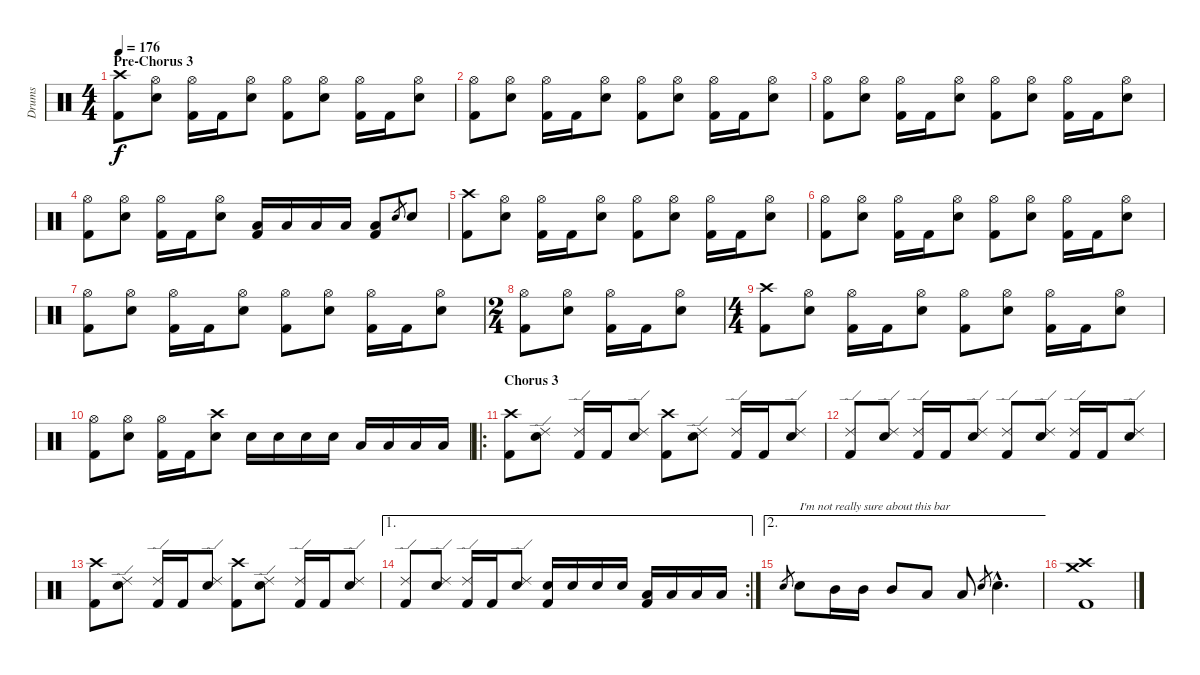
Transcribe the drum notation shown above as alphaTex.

\track ("Drums" "Drums") {instrument percussion}
\staff {score}
\articulation defaults
\ts (4 4)
\section ("" "Pre-Chorus 3")
\tempo 176
\clef neutral
\ks c
("Crash high (hit)" "Kick (hit) 2").8{dy f} ("Hi-Hat (open)" "Electric Snare (hit)").8 ("Hi-Hat (open)" "Kick (hit) 2").16 "Kick (hit) 2".16 ("Hi-Hat (open)" "Electric Snare (hit)").8 ("Hi-Hat (open)" "Kick (hit) 2").8 ("Hi-Hat (open)" "Electric Snare (hit)").8 ("Hi-Hat (open)" "Kick (hit) 2").16 "Kick (hit) 2".16 ("Hi-Hat (open)" "Electric Snare (hit)").8 |
("Hi-Hat (open)" "Kick (hit) 2").8 ("Hi-Hat (open)" "Electric Snare (hit)").8 ("Hi-Hat (open)" "Kick (hit) 2").16 "Kick (hit) 2".16 ("Hi-Hat (open)" "Electric Snare (hit)").8 ("Hi-Hat (open)" "Kick (hit) 2").8 ("Hi-Hat (open)" "Electric Snare (hit)").8 ("Hi-Hat (open)" "Kick (hit) 2").16 "Kick (hit) 2".16 ("Hi-Hat (open)" "Electric Snare (hit)").8 |
("Hi-Hat (open)" "Kick (hit) 2").8 ("Hi-Hat (open)" "Electric Snare (hit)").8 ("Hi-Hat (open)" "Kick (hit) 2").16 "Kick (hit) 2".16 ("Hi-Hat (open)" "Electric Snare (hit)").8 ("Hi-Hat (open)" "Kick (hit) 2").8 ("Hi-Hat (open)" "Electric Snare (hit)").8 ("Hi-Hat (open)" "Kick (hit) 2").16 "Kick (hit) 2".16 ("Hi-Hat (open)" "Electric Snare (hit)").8 |
("Hi-Hat (open)" "Kick (hit) 2").8 ("Hi-Hat (open)" "Electric Snare (hit)").8 ("Hi-Hat (open)" "Kick (hit) 2").16 "Kick (hit) 2".16 ("Hi-Hat (open)" "Electric Snare (hit)").8 ("Low Tom (hit)" "Kick (hit) 2").16 "Low Tom (hit)".16 "Low Tom (hit)".16 "Low Tom (hit)".16 ("Low Tom (hit)" "Kick (hit) 2").8 "Electric Snare (hit)".8{gr} "Electric Snare (hit)".8 |
("Crash high (hit)" "Kick (hit) 2").8 ("Hi-Hat (open)" "Electric Snare (hit)").8 ("Hi-Hat (open)" "Kick (hit) 2").16 "Kick (hit) 2".16 ("Hi-Hat (open)" "Electric Snare (hit)").8 ("Hi-Hat (open)" "Kick (hit) 2").8 ("Hi-Hat (open)" "Electric Snare (hit)").8 ("Hi-Hat (open)" "Kick (hit) 2").16 "Kick (hit) 2".16 ("Hi-Hat (open)" "Electric Snare (hit)").8 |
("Hi-Hat (open)" "Kick (hit) 2").8 ("Hi-Hat (open)" "Electric Snare (hit)").8 ("Hi-Hat (open)" "Kick (hit) 2").16 "Kick (hit) 2".16 ("Hi-Hat (open)" "Electric Snare (hit)").8 ("Hi-Hat (open)" "Kick (hit) 2").8 ("Hi-Hat (open)" "Electric Snare (hit)").8 ("Hi-Hat (open)" "Kick (hit) 2").16 "Kick (hit) 2".16 ("Hi-Hat (open)" "Electric Snare (hit)").8 |
("Hi-Hat (open)" "Kick (hit) 2").8 ("Hi-Hat (open)" "Electric Snare (hit)").8 ("Hi-Hat (open)" "Kick (hit) 2").16 "Kick (hit) 2".16 ("Hi-Hat (open)" "Electric Snare (hit)").8 ("Hi-Hat (open)" "Kick (hit) 2").8 ("Hi-Hat (open)" "Electric Snare (hit)").8 ("Hi-Hat (open)" "Kick (hit) 2").16 "Kick (hit) 2".16 ("Hi-Hat (open)" "Electric Snare (hit)").8 |
\ts (2 4)
("Hi-Hat (open)" "Kick (hit) 2").8 ("Hi-Hat (open)" "Electric Snare (hit)").8 ("Hi-Hat (open)" "Kick (hit) 2").16 "Kick (hit) 2".16 ("Hi-Hat (open)" "Electric Snare (hit)").8 |
\ts (4 4)
("Crash high (hit)" "Kick (hit) 2").8 ("Hi-Hat (open)" "Electric Snare (hit)").8 ("Hi-Hat (open)" "Kick (hit) 2").16 "Kick (hit) 2".16 ("Hi-Hat (open)" "Electric Snare (hit)").8 ("Hi-Hat (open)" "Kick (hit) 2").8 ("Hi-Hat (open)" "Electric Snare (hit)").8 ("Hi-Hat (open)" "Kick (hit) 2").16 "Kick (hit) 2".16 ("Hi-Hat (open)" "Electric Snare (hit)").8 |
("Hi-Hat (open)" "Kick (hit) 2").8 ("Hi-Hat (open)" "Electric Snare (hit)").8 ("Hi-Hat (open)" "Kick (hit) 2").16 "Kick (hit) 2".16 ("Crash high (hit)" "Electric Snare (hit)").8 "Electric Snare (hit)".16 "Electric Snare (hit)".16 "Electric Snare (hit)".16 "Electric Snare (hit)".16 "Low Tom (hit)".16 "Low Tom (hit)".16 "Low Tom (hit)".16 "Low Tom (hit)".16 |
\ro
\section ("" "Chorus 3")
("Crash high (hit)" "Kick (hit) 2").8 ("Ride (edge) 2" "Electric Snare (hit)").8 ("Ride (edge) 2" "Kick (hit) 2").16 "Kick (hit) 2".16 ("Ride (edge) 2" "Electric Snare (hit)").8 ("Crash high (hit)" "Kick (hit) 2").8 ("Ride (edge) 2" "Electric Snare (hit)").8 ("Ride (edge) 2" "Kick (hit) 2").16 "Kick (hit) 2".16 ("Ride (edge) 2" "Electric Snare (hit)").8 |
("Ride (edge) 2" "Kick (hit) 2").8 ("Ride (edge) 2" "Electric Snare (hit)").8 ("Ride (edge) 2" "Kick (hit) 2").16 "Kick (hit) 2".16 ("Ride (edge) 2" "Electric Snare (hit)").8 ("Ride (edge) 2" "Kick (hit) 2").8 ("Ride (edge) 2" "Electric Snare (hit)").8 ("Ride (edge) 2" "Kick (hit) 2").16 "Kick (hit) 2".16 ("Ride (edge) 2" "Electric Snare (hit)").8 |
("Crash high (hit)" "Kick (hit) 2").8 ("Ride (edge) 2" "Electric Snare (hit)").8 ("Ride (edge) 2" "Kick (hit) 2").16 "Kick (hit) 2".16 ("Ride (edge) 2" "Electric Snare (hit)").8 ("Crash high (hit)" "Kick (hit) 2").8 ("Ride (edge) 2" "Electric Snare (hit)").8 ("Ride (edge) 2" "Kick (hit) 2").16 "Kick (hit) 2".16 ("Ride (edge) 2" "Electric Snare (hit)").8 |
\ae 1
\rc 2
("Ride (edge) 2" "Kick (hit) 2").8 ("Ride (edge) 2" "Electric Snare (hit)").8 ("Ride (edge) 2" "Kick (hit) 2").16 "Kick (hit) 2".16 ("Ride (edge) 2" "Electric Snare (hit)").8 ("Electric Snare (hit)" "Kick (hit) 2").16 "Electric Snare (hit)".16 "Electric Snare (hit)".16 "Electric Snare (hit)".16 ("Low Tom (hit)" "Kick (hit) 2").16 "Low Tom (hit)".16 "Low Tom (hit)".16 "Low Tom (hit)".16 |
\ae 2 "Electric Snare (hit)".8{gr} "Electric Snare (hit)".8{txt "I'm not really sure about this bar"} "Mid Tom (hit)".16 "Mid Tom (hit)".16 "Mid Tom (hit)".8 "Low Tom (hit)".8 "Low Tom (hit)".8 "Electric Snare (hit)".8{gr} "Electric Snare (hit)"{hac}.4{d}
|
("Crash high (hit)" "Crash medium (hit)" "Kick (hit) 2").1
